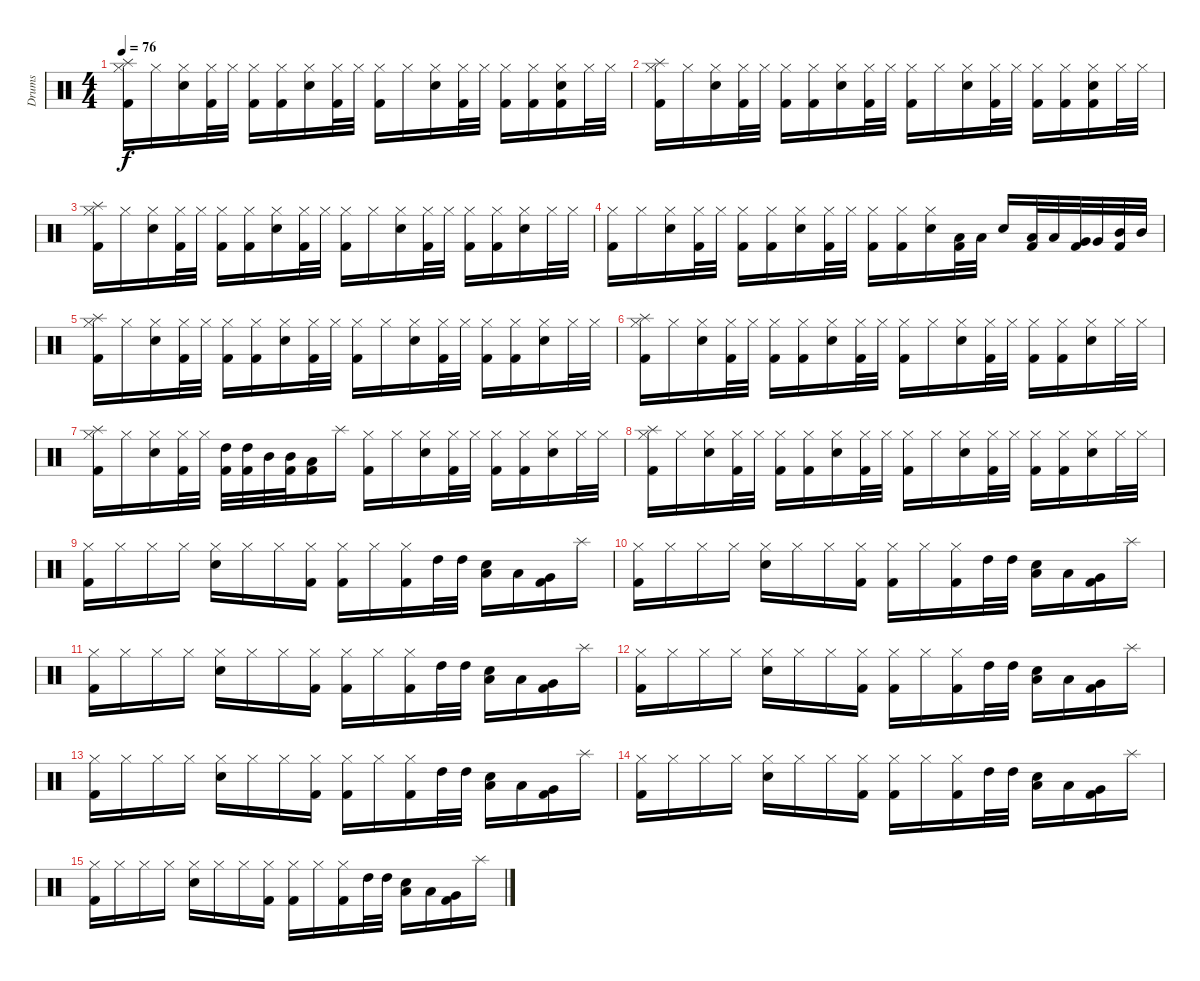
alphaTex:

\track ("Drums" "Drums") {instrument percussion}
\staff {score}
\articulation defaults
\ts (4 4)
\tempo 76
\clef neutral
\ks c
("Hi-Hat (closed)" "Kick (hit) 2" "Splash (hit)").16{dy f} "Hi-Hat (closed)".16 ("Hi-Hat (closed)" "Snare (hit) 2").16 ("Hi-Hat (closed)" "Kick (hit) 2").32 "Hi-Hat (closed)".32 ("Hi-Hat (closed)" "Kick (hit) 2").16 ("Hi-Hat (closed)" "Kick (hit) 2").16 ("Hi-Hat (closed)" "Snare (hit) 2").16 ("Hi-Hat (closed)" "Kick (hit) 2").32 "Hi-Hat (closed)".32 ("Hi-Hat (closed)" "Kick (hit) 2").16 "Hi-Hat (closed)".16 ("Hi-Hat (closed)" "Snare (hit) 2").16 ("Hi-Hat (closed)" "Kick (hit) 2").32 "Hi-Hat (closed)".32 ("Hi-Hat (closed)" "Kick (hit) 2").16 ("Hi-Hat (closed)" "Kick (hit) 2").16 ("Hi-Hat (closed)" "Kick (hit) 2" "Snare (hit) 2").16 "Hi-Hat (closed)".32 "Hi-Hat (closed)".32 |
("Hi-Hat (closed)" "Kick (hit) 2" "Splash (hit)").16 "Hi-Hat (closed)".16 ("Hi-Hat (closed)" "Snare (hit) 2").16 ("Hi-Hat (closed)" "Kick (hit) 2").32 "Hi-Hat (closed)".32 ("Hi-Hat (closed)" "Kick (hit) 2").16 ("Hi-Hat (closed)" "Kick (hit) 2").16 ("Hi-Hat (closed)" "Snare (hit) 2").16 ("Hi-Hat (closed)" "Kick (hit) 2").32 "Hi-Hat (closed)".32 ("Hi-Hat (closed)" "Kick (hit) 2").16 "Hi-Hat (closed)".16 ("Hi-Hat (closed)" "Snare (hit) 2").16 ("Hi-Hat (closed)" "Kick (hit) 2").32 "Hi-Hat (closed)".32 ("Hi-Hat (closed)" "Kick (hit) 2").16 ("Hi-Hat (closed)" "Kick (hit) 2").16 ("Hi-Hat (closed)" "Kick (hit) 2" "Snare (hit) 2").16 "Hi-Hat (closed)".32 "Hi-Hat (closed)".32 |
("Hi-Hat (closed)" "Kick (hit) 2" "Splash (hit)").16 "Hi-Hat (closed)".16 ("Hi-Hat (closed)" "Snare (hit) 2").16 ("Hi-Hat (closed)" "Kick (hit) 2").32 "Hi-Hat (closed)".32 ("Hi-Hat (closed)" "Kick (hit) 2").16 ("Hi-Hat (closed)" "Kick (hit) 2").16 ("Hi-Hat (closed)" "Snare (hit) 2").16 ("Hi-Hat (closed)" "Kick (hit) 2").32 "Hi-Hat (closed)".32 ("Hi-Hat (closed)" "Kick (hit) 2").16 "Hi-Hat (closed)".16 ("Hi-Hat (closed)" "Snare (hit) 2").16 ("Hi-Hat (closed)" "Kick (hit) 2").32 "Hi-Hat (closed)".32 ("Hi-Hat (closed)" "Kick (hit) 2").16 ("Hi-Hat (closed)" "Kick (hit) 2").16 ("Hi-Hat (closed)" "Snare (hit) 2").16 "Hi-Hat (closed)".32 "Hi-Hat (closed)".32 |
("Hi-Hat (closed)" "Kick (hit) 2").16 "Hi-Hat (closed)".16 ("Hi-Hat (closed)" "Snare (hit) 2").16 ("Hi-Hat (closed)" "Kick (hit) 2").32 "Hi-Hat (closed)".32 ("Hi-Hat (closed)" "Kick (hit) 2").16 ("Hi-Hat (closed)" "Kick (hit) 2").16 ("Hi-Hat (closed)" "Snare (hit) 2").16 ("Hi-Hat (closed)" "Kick (hit) 2").32 "Hi-Hat (closed)".32 ("Hi-Hat (closed)" "Kick (hit) 2").16 ("Hi-Hat (closed)" "Kick (hit) 2").16 ("Hi-Hat (closed)" "Snare (hit) 2").16 ("Low Tom (hit)" "Kick (hit) 2").32 "Low Tom (hit)".32 "Snare (hit) 2".16 ("Low Tom (hit)" "Kick (hit) 2").32 "Low Tom (hit)".32 ("Very Low Tom (hit)" "Kick (hit) 2").32 "Very Low Tom (hit)".32 ("Mid Tom (hit)" "Kick (hit) 2").32 "Mid Tom (hit)".32 |
("Hi-Hat (closed)" "Kick (hit) 2" "Splash (hit)").16 "Hi-Hat (closed)".16 ("Hi-Hat (closed)" "Snare (hit) 2").16 ("Hi-Hat (closed)" "Kick (hit) 2").32 "Hi-Hat (closed)".32 ("Hi-Hat (closed)" "Kick (hit) 2").16 ("Hi-Hat (closed)" "Kick (hit) 2").16 ("Hi-Hat (closed)" "Snare (hit) 2").16 ("Hi-Hat (closed)" "Kick (hit) 2").32 "Hi-Hat (closed)".32 ("Hi-Hat (closed)" "Kick (hit) 2").16 "Hi-Hat (closed)".16 ("Hi-Hat (closed)" "Snare (hit) 2").16 ("Hi-Hat (closed)" "Kick (hit) 2").32 "Hi-Hat (closed)".32 ("Hi-Hat (closed)" "Kick (hit) 2").16 ("Hi-Hat (closed)" "Kick (hit) 2").16 ("Hi-Hat (closed)" "Snare (hit) 2").16 "Hi-Hat (closed)".32 "Hi-Hat (closed)".32 |
("Hi-Hat (closed)" "Kick (hit) 2" "Splash (hit)").16 "Hi-Hat (closed)".16 ("Hi-Hat (closed)" "Snare (hit) 2").16 ("Hi-Hat (closed)" "Kick (hit) 2").32 "Hi-Hat (closed)".32 ("Hi-Hat (closed)" "Kick (hit) 2").16 ("Hi-Hat (closed)" "Kick (hit) 2").16 ("Hi-Hat (closed)" "Snare (hit) 2").16 ("Hi-Hat (closed)" "Kick (hit) 2").32 "Hi-Hat (closed)".32 ("Hi-Hat (closed)" "Kick (hit) 2").16 "Hi-Hat (closed)".16 ("Hi-Hat (closed)" "Snare (hit) 2").16 ("Hi-Hat (closed)" "Kick (hit) 2").32 "Hi-Hat (closed)".32 ("Hi-Hat (closed)" "Kick (hit) 2").16 ("Hi-Hat (closed)" "Kick (hit) 2").16 ("Hi-Hat (closed)" "Snare (hit) 2").16 "Hi-Hat (closed)".32 "Hi-Hat (closed)".32 |
("Hi-Hat (closed)" "Kick (hit) 2" "Splash (hit)").16 "Hi-Hat (closed)".16 ("Hi-Hat (closed)" "Snare (hit) 2").16 ("Hi-Hat (closed)" "Kick (hit) 2").32 "Hi-Hat (closed)".32 ("High Tom (hit)" "Kick (hit) 2").32 ("High Tom (hit)" "Kick (hit) 2").32 "Mid Tom (hit)".32 ("Mid Tom (hit)" "Kick (hit) 2").32 ("Low Tom (hit)" "Kick (hit) 2").16 "Splash (hit)".16 ("Hi-Hat (closed)" "Kick (hit) 2").16 "Hi-Hat (closed)".16 ("Hi-Hat (closed)" "Snare (hit) 2").16 ("Hi-Hat (closed)" "Kick (hit) 2").32 "Hi-Hat (closed)".32 ("Hi-Hat (closed)" "Kick (hit) 2").16 ("Hi-Hat (closed)" "Kick (hit) 2").16 ("Hi-Hat (closed)" "Snare (hit) 2").16 "Hi-Hat (closed)".32 "Hi-Hat (closed)".32 |
("Hi-Hat (closed)" "Kick (hit) 2" "Splash (hit)").16 "Hi-Hat (closed)".16 ("Hi-Hat (closed)" "Snare (hit) 2").16 ("Hi-Hat (closed)" "Kick (hit) 2").32 "Hi-Hat (closed)".32 ("Hi-Hat (closed)" "Kick (hit) 2").16 ("Hi-Hat (closed)" "Kick (hit) 2").16 ("Hi-Hat (closed)" "Snare (hit) 2").16 ("Hi-Hat (closed)" "Kick (hit) 2").32 "Hi-Hat (closed)".32 ("Hi-Hat (closed)" "Kick (hit) 2").16 "Hi-Hat (closed)".16 ("Hi-Hat (closed)" "Snare (hit) 2").16 ("Hi-Hat (closed)" "Kick (hit) 2").32 "Hi-Hat (closed)".32 ("Hi-Hat (closed)" "Kick (hit) 2").16 ("Hi-Hat (closed)" "Kick (hit) 2").16 ("Hi-Hat (closed)" "Snare (hit) 2").16 "Hi-Hat (closed)".32 "Hi-Hat (closed)".32 |
("Hi-Hat (closed)" "Kick (hit) 2").16 "Hi-Hat (closed)".16 "Hi-Hat (closed)".16 "Hi-Hat (closed)".16 ("Hi-Hat (closed)" "Snare (hit) 2").16 "Hi-Hat (closed)".16 "Hi-Hat (closed)".16 ("Hi-Hat (closed)" "Kick (hit) 2").16 ("Hi-Hat (closed)" "Kick (hit) 2").16 "Hi-Hat (closed)".16 ("Hi-Hat (closed)" "Kick (hit) 2").16 "High Tom (hit)".32 "High Tom (hit)".32 ("Low Tom (hit)" "Snare (hit) 2").16 "Low Tom (hit)".16 ("Very Low Tom (hit)" "Kick (hit) 2").16 "Splash (hit)".16 |
("Hi-Hat (closed)" "Kick (hit) 2").16 "Hi-Hat (closed)".16 "Hi-Hat (closed)".16 "Hi-Hat (closed)".16 ("Hi-Hat (closed)" "Snare (hit) 2").16 "Hi-Hat (closed)".16 "Hi-Hat (closed)".16 ("Hi-Hat (closed)" "Kick (hit) 2").16 ("Hi-Hat (closed)" "Kick (hit) 2").16 "Hi-Hat (closed)".16 ("Hi-Hat (closed)" "Kick (hit) 2").16 "High Tom (hit)".32 "High Tom (hit)".32 ("Low Tom (hit)" "Snare (hit) 2").16 "Low Tom (hit)".16 ("Very Low Tom (hit)" "Kick (hit) 2").16 "Splash (hit)".16 |
("Hi-Hat (closed)" "Kick (hit) 2").16 "Hi-Hat (closed)".16 "Hi-Hat (closed)".16 "Hi-Hat (closed)".16 ("Hi-Hat (closed)" "Snare (hit) 2").16 "Hi-Hat (closed)".16 "Hi-Hat (closed)".16 ("Hi-Hat (closed)" "Kick (hit) 2").16 ("Hi-Hat (closed)" "Kick (hit) 2").16 "Hi-Hat (closed)".16 ("Hi-Hat (closed)" "Kick (hit) 2").16 "High Tom (hit)".32 "High Tom (hit)".32 ("Low Tom (hit)" "Snare (hit) 2").16 "Low Tom (hit)".16 ("Very Low Tom (hit)" "Kick (hit) 2").16 "Splash (hit)".16 |
("Hi-Hat (closed)" "Kick (hit) 2").16 "Hi-Hat (closed)".16 "Hi-Hat (closed)".16 "Hi-Hat (closed)".16 ("Hi-Hat (closed)" "Snare (hit) 2").16 "Hi-Hat (closed)".16 "Hi-Hat (closed)".16 ("Hi-Hat (closed)" "Kick (hit) 2").16 ("Hi-Hat (closed)" "Kick (hit) 2").16 "Hi-Hat (closed)".16 ("Hi-Hat (closed)" "Kick (hit) 2").16 "High Tom (hit)".32 "High Tom (hit)".32 ("Low Tom (hit)" "Snare (hit) 2").16 "Low Tom (hit)".16 ("Very Low Tom (hit)" "Kick (hit) 2").16 "Splash (hit)".16 |
("Hi-Hat (closed)" "Kick (hit) 2").16 "Hi-Hat (closed)".16 "Hi-Hat (closed)".16 "Hi-Hat (closed)".16 ("Hi-Hat (closed)" "Snare (hit) 2").16 "Hi-Hat (closed)".16 "Hi-Hat (closed)".16 ("Hi-Hat (closed)" "Kick (hit) 2").16 ("Hi-Hat (closed)" "Kick (hit) 2").16 "Hi-Hat (closed)".16 ("Hi-Hat (closed)" "Kick (hit) 2").16 "High Tom (hit)".32 "High Tom (hit)".32 ("Low Tom (hit)" "Snare (hit) 2").16 "Low Tom (hit)".16 ("Very Low Tom (hit)" "Kick (hit) 2").16 "Splash (hit)".16 |
("Hi-Hat (closed)" "Kick (hit) 2").16 "Hi-Hat (closed)".16 "Hi-Hat (closed)".16 "Hi-Hat (closed)".16 ("Hi-Hat (closed)" "Snare (hit) 2").16 "Hi-Hat (closed)".16 "Hi-Hat (closed)".16 ("Hi-Hat (closed)" "Kick (hit) 2").16 ("Hi-Hat (closed)" "Kick (hit) 2").16 "Hi-Hat (closed)".16 ("Hi-Hat (closed)" "Kick (hit) 2").16 "High Tom (hit)".32 "High Tom (hit)".32 ("Low Tom (hit)" "Snare (hit) 2").16 "Low Tom (hit)".16 ("Very Low Tom (hit)" "Kick (hit) 2").16 "Splash (hit)".16 |
("Hi-Hat (closed)" "Kick (hit) 2").16 "Hi-Hat (closed)".16 "Hi-Hat (closed)".16 "Hi-Hat (closed)".16 ("Hi-Hat (closed)" "Snare (hit) 2").16 "Hi-Hat (closed)".16 "Hi-Hat (closed)".16 ("Hi-Hat (closed)" "Kick (hit) 2").16 ("Hi-Hat (closed)" "Kick (hit) 2").16 "Hi-Hat (closed)".16 ("Hi-Hat (closed)" "Kick (hit) 2").16 "High Tom (hit)".32 "High Tom (hit)".32 ("Low Tom (hit)" "Snare (hit) 2").16 "Low Tom (hit)".16 ("Very Low Tom (hit)" "Kick (hit) 2").16 "Splash (hit)".16
